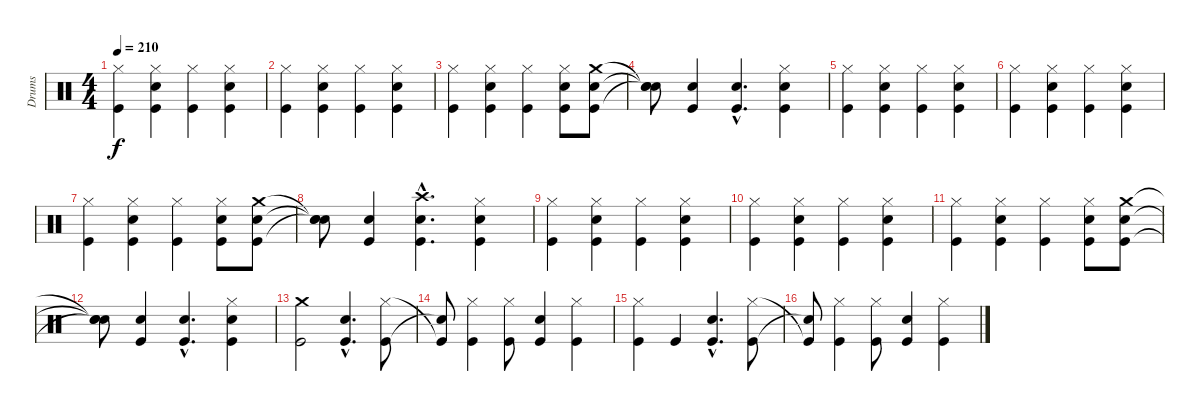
\track ("Drums" "Drums") {instrument percussion}
\staff {score}
\articulation defaults
\ts (4 4)
\tempo 210
\clef neutral
\ks c
("Hi-Hat (closed)" "Kick (hit)").4{dy f} ("Hi-Hat (closed)" "Snare (hit) 2" "Kick (hit)").4 ("Hi-Hat (closed)" "Kick (hit)").4 ("Hi-Hat (closed)" "Snare (hit) 2" "Kick (hit)").4 |
("Hi-Hat (closed)" "Kick (hit)").4 ("Hi-Hat (closed)" "Snare (hit) 2" "Kick (hit)").4 ("Hi-Hat (closed)" "Kick (hit)").4 ("Hi-Hat (closed)" "Snare (hit) 2" "Kick (hit)").4 |
("Hi-Hat (closed)" "Kick (hit)").4 ("Hi-Hat (closed)" "Snare (hit) 2" "Kick (hit)").4 ("Hi-Hat (closed)" "Kick (hit)").4 ("Hi-Hat (closed)" "Snare (hit) 2" "Kick (hit)").8 ("Crash medium (hit)" "Snare (hit) 2" "Kick (hit)").8 |
("Snare (hit)"{t} "Snare (hit)"{t} "Snare (hit)"{t}).8 ("Snare (hit) 2" "Kick (hit)").4 ("Snare (hit) 2"{hac} "Kick (hit)"{hac}).4{d} ("Hi-Hat (closed)" "Snare (hit) 2" "Kick (hit)").4 |
("Hi-Hat (closed)" "Kick (hit)").4 ("Hi-Hat (closed)" "Snare (hit) 2" "Kick (hit)").4 ("Hi-Hat (closed)" "Kick (hit)").4 ("Hi-Hat (closed)" "Snare (hit) 2" "Kick (hit)").4 |
("Hi-Hat (closed)" "Kick (hit)").4 ("Hi-Hat (closed)" "Snare (hit) 2" "Kick (hit)").4 ("Hi-Hat (closed)" "Kick (hit)").4 ("Hi-Hat (closed)" "Snare (hit) 2" "Kick (hit)").4 |
("Hi-Hat (closed)" "Kick (hit)").4 ("Hi-Hat (closed)" "Snare (hit) 2" "Kick (hit)").4 ("Hi-Hat (closed)" "Kick (hit)").4 ("Hi-Hat (closed)" "Snare (hit) 2" "Kick (hit)").8 ("Crash medium (hit)" "Snare (hit) 2" "Kick (hit)").8 |
("Snare (hit)"{t} "Snare (hit)"{t} "Snare (hit)"{t}).8 ("Snare (hit) 2" "Kick (hit)").4 ("Crash high (hit)"{hac} "Snare (hit) 2"{hac} "Kick (hit)"{hac}).4{d} ("Hi-Hat (closed)" "Snare (hit) 2" "Kick (hit)").4 |
("Hi-Hat (closed)" "Kick (hit)").4 ("Hi-Hat (closed)" "Snare (hit) 2" "Kick (hit)").4 ("Hi-Hat (closed)" "Kick (hit)").4 ("Hi-Hat (closed)" "Snare (hit) 2" "Kick (hit)").4 |
("Hi-Hat (closed)" "Kick (hit)").4 ("Hi-Hat (closed)" "Snare (hit) 2" "Kick (hit)").4 ("Hi-Hat (closed)" "Kick (hit)").4 ("Hi-Hat (closed)" "Snare (hit) 2" "Kick (hit)").4 |
("Hi-Hat (closed)" "Kick (hit)").4 ("Hi-Hat (closed)" "Snare (hit) 2" "Kick (hit)").4 ("Hi-Hat (closed)" "Kick (hit)").4 ("Hi-Hat (closed)" "Snare (hit) 2" "Kick (hit)").8 ("Crash medium (hit)" "Snare (hit) 2" "Kick (hit)").8 |
("Snare (hit)"{t} "Snare (hit)"{t} "Snare (hit)"{t}).8 ("Snare (hit) 2" "Kick (hit)").4 ("Snare (hit) 2"{hac} "Kick (hit)"{hac}).4{d} ("Hi-Hat (closed)" "Snare (hit) 2" "Kick (hit)").4 |
("Crash medium (hit)" "Kick (hit)").2 ("Snare (hit) 2"{hac} "Kick (hit)"{hac}).4{d} ("Hi-Hat (closed)" "Kick (hit)").8 |
("Kick (hit)"{t} "Snare (hit)"{t}).8 ("Hi-Hat (closed)" "Kick (hit)").4 ("Hi-Hat (closed)" "Kick (hit)").8 ("Snare (hit) 2" "Kick (hit)").4 ("Hi-Hat (closed)" "Kick (hit)").4 |
("Hi-Hat (closed)" "Kick (hit)").4 "Kick (hit)".4 ("Snare (hit) 2"{hac} "Kick (hit)"{hac}).4{d} ("Hi-Hat (closed)" "Kick (hit)").8 |
("Kick (hit)"{t} "Snare (hit)"{t}).8 ("Hi-Hat (closed)" "Kick (hit)").4 ("Hi-Hat (closed)" "Kick (hit)").8 ("Snare (hit) 2" "Kick (hit)").4 ("Hi-Hat (closed)" "Kick (hit)").4
